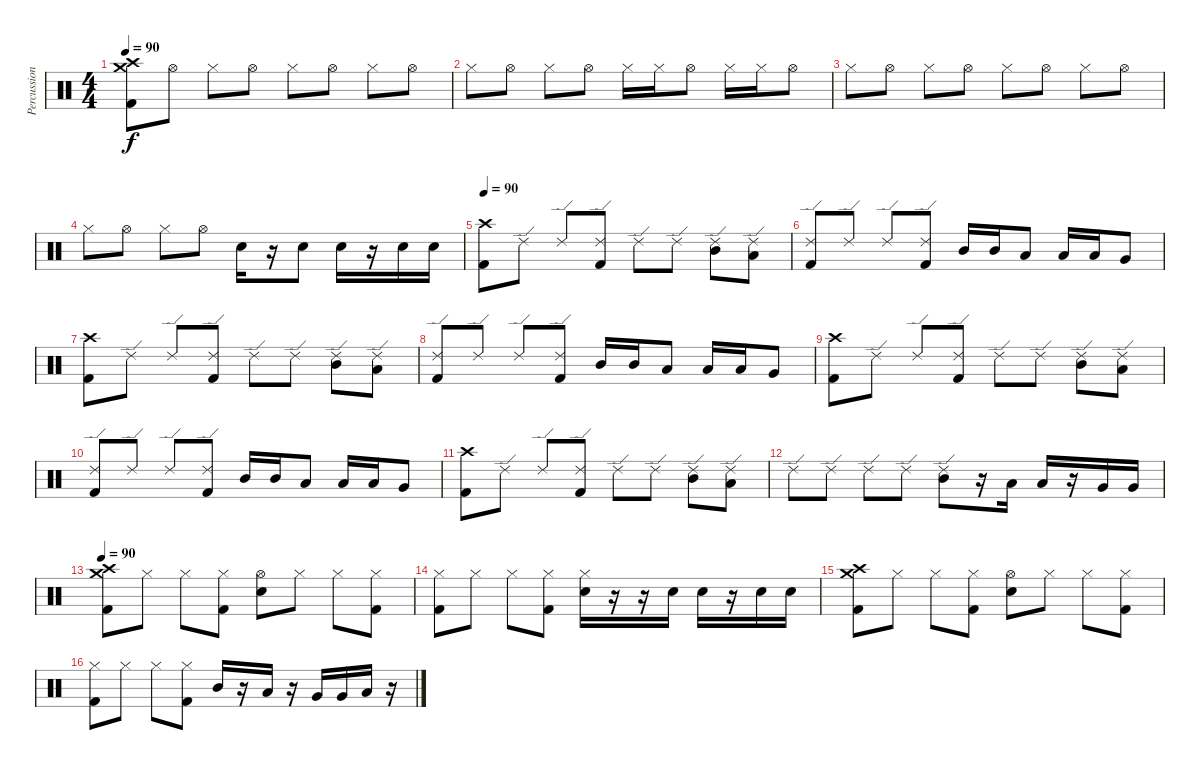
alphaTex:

\track ("Percussion" "Percussion") {instrument percussion}
\staff {score}
\articulation defaults
\ts (4 4)
\tempo 90
\clef neutral
\ks c
("Crash high (hit)" "Crash medium (hit)" "Kick (hit) 2").8{dy f} "Hi-Hat (open)".8 "Hi-Hat (closed)".8 "Hi-Hat (open)".8 "Hi-Hat (closed)".8 "Hi-Hat (open)".8 "Hi-Hat (closed)".8 "Hi-Hat (open)".8 |
"Hi-Hat (closed)".8 "Hi-Hat (open)".8 "Hi-Hat (closed)".8 "Hi-Hat (open)".8 "Hi-Hat (closed)".16 "Hi-Hat (closed)".16 "Hi-Hat (open)".8 "Hi-Hat (closed)".16 "Hi-Hat (closed)".16 "Hi-Hat (open)".8 |
"Hi-Hat (closed)".8 "Hi-Hat (open)".8 "Hi-Hat (closed)".8 "Hi-Hat (open)".8 "Hi-Hat (closed)".8 "Hi-Hat (open)".8 "Hi-Hat (closed)".8 "Hi-Hat (open)".8 |
"Hi-Hat (closed)".8 "Hi-Hat (open)".8 "Hi-Hat (closed)".8 "Hi-Hat (open)".8 "Snare (hit) 2".16 r.16 "Snare (hit) 2"{tr (38 64)}.8 "Snare (hit) 2".16 r.16 "Snare (hit) 2".16 "Snare (hit) 2".16 |
\tempo 90
("Crash high (hit)" "Kick (hit) 2").8 "Ride (edge) 2".8 "Ride (edge) 2".8 ("Ride (edge) 2" "Kick (hit) 2").8 "Ride (edge) 2".8 "Ride (edge) 2".8 ("Ride (edge) 2" "Mid Tom (hit)").8 ("Ride (edge) 2" "Low Tom (hit)").8 |
("Ride (edge) 2" "Kick (hit) 2").8 "Ride (edge) 2".8 "Ride (edge) 2".8 ("Ride (edge) 2" "Kick (hit) 2").8 "Mid Tom (hit)".16 "Mid Tom (hit)".16 "Low Tom (hit)".8 "Low Tom (hit)".16 "Low Tom (hit)".16 "Very Low Tom (hit)".8 |
("Crash high (hit)" "Kick (hit) 2").8 "Ride (edge) 2".8 "Ride (edge) 2".8 ("Ride (edge) 2" "Kick (hit) 2").8 "Ride (edge) 2".8 "Ride (edge) 2".8 ("Ride (edge) 2" "Mid Tom (hit)").8 ("Ride (edge) 2" "Low Tom (hit)").8 |
("Ride (edge) 2" "Kick (hit) 2").8 "Ride (edge) 2".8 "Ride (edge) 2".8 ("Ride (edge) 2" "Kick (hit) 2").8 "Mid Tom (hit)".16 "Mid Tom (hit)".16 "Low Tom (hit)".8 "Low Tom (hit)".16 "Low Tom (hit)".16 "Very Low Tom (hit)".8 |
("Crash high (hit)" "Kick (hit) 2").8 "Ride (edge) 2".8 "Ride (edge) 2".8 ("Ride (edge) 2" "Kick (hit) 2").8 "Ride (edge) 2".8 "Ride (edge) 2".8 ("Ride (edge) 2" "Mid Tom (hit)").8 ("Ride (edge) 2" "Low Tom (hit)").8 |
("Ride (edge) 2" "Kick (hit) 2").8 "Ride (edge) 2".8 "Ride (edge) 2".8 ("Ride (edge) 2" "Kick (hit) 2").8 "Mid Tom (hit)".16 "Mid Tom (hit)".16 "Low Tom (hit)".8 "Low Tom (hit)".16 "Low Tom (hit)".16 "Very Low Tom (hit)".8 |
("Crash high (hit)" "Kick (hit) 2").8 "Ride (edge) 2".8 "Ride (edge) 2".8 ("Ride (edge) 2" "Kick (hit) 2").8 "Ride (edge) 2".8 "Ride (edge) 2".8 ("Ride (edge) 2" "Mid Tom (hit)").8 ("Ride (edge) 2" "Low Tom (hit)").8 |
"Ride (edge) 2".8 "Ride (edge) 2".8 "Ride (edge) 2".8 "Ride (edge) 2".8 ("Ride (edge) 2" "Mid Tom (hit)").8 r.16 "Low Tom (hit)".16 "Low Tom (hit)".16 r.16 "Very Low Tom (hit)".16 "Very Low Tom (hit)".16 |
\tempo 90
("Crash high (hit)" "Crash medium (hit)" "Kick (hit) 2").8 "Hi-Hat (closed)".8 "Hi-Hat (closed)".8 ("Hi-Hat (closed)" "Kick (hit) 2").8 ("Hi-Hat (open)" "Snare (hit) 2").8 "Hi-Hat (closed)".8 "Hi-Hat (closed)".8 ("Hi-Hat (closed)" "Kick (hit) 2").8 |
("Hi-Hat (closed)" "Kick (hit) 2").8 "Hi-Hat (closed)".8 "Hi-Hat (closed)".8 ("Hi-Hat (closed)" "Kick (hit) 2").8 ("Hi-Hat (closed)" "Snare (hit) 2").16 r.16 r.16 "Snare (hit) 2".16 "Snare (hit) 2".16 r.16 "Snare (hit) 2".16 "Snare (hit) 2".16 |
("Crash high (hit)" "Crash medium (hit)" "Kick (hit) 2").8 "Hi-Hat (closed)".8 "Hi-Hat (closed)".8 ("Hi-Hat (closed)" "Kick (hit) 2").8 ("Hi-Hat (open)" "Snare (hit) 2").8 "Hi-Hat (closed)".8 "Hi-Hat (closed)".8 ("Hi-Hat (closed)" "Kick (hit) 2").8 |
("Hi-Hat (closed)" "Kick (hit) 2").8 "Hi-Hat (closed)".8 "Hi-Hat (closed)".8 ("Hi-Hat (closed)" "Kick (hit) 2").8 "Mid Tom (hit)".16 r.16 "Low Tom (hit)".16 r.16 "Very Low Tom (hit)".16 "Very Low Tom (hit)".16 "Low Floor Tom (hit)".16 r.16
